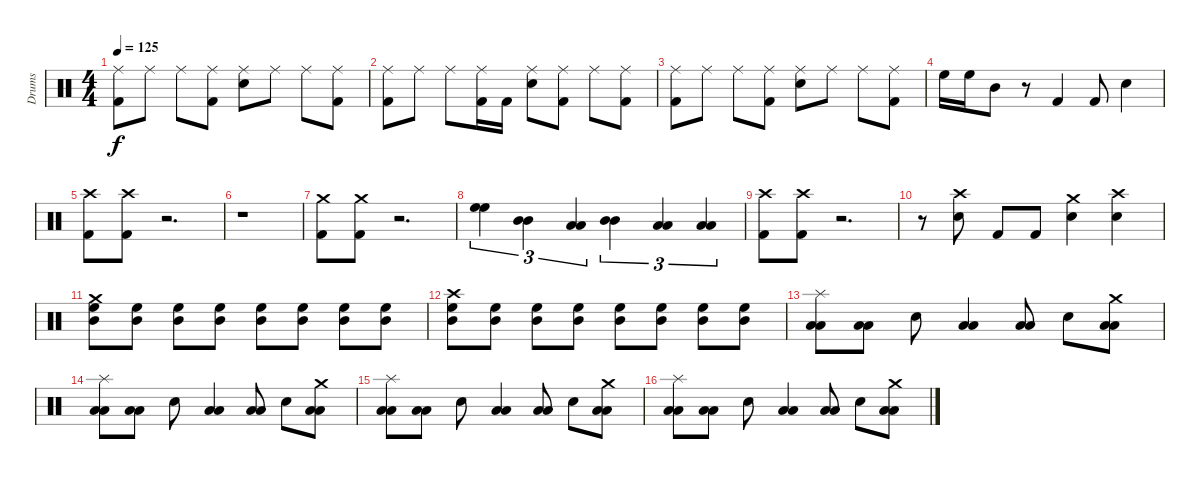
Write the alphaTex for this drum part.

\track ("Drums" "Drums") {instrument percussion}
\staff {score}
\articulation defaults
\ts (4 4)
\tempo 125
\clef neutral
\ks c
("Ride (middle)" "Kick (hit) 2").8{dy f} "Ride (middle)".8 "Ride (middle)".8 ("Ride (middle)" "Kick (hit) 2").8 ("Ride (middle)" "Snare (hit) 2").8 "Ride (middle)".8 "Ride (middle)".8 ("Ride (middle)" "Kick (hit) 2").8 |
("Ride (middle)" "Kick (hit) 2").8 "Ride (middle)".8 "Ride (middle)".8 ("Ride (middle)" "Kick (hit) 2").16 "Kick (hit) 2".16 ("Ride (middle)" "Snare (hit) 2").8 ("Ride (middle)" "Kick (hit) 2").8 "Ride (middle)".8 ("Ride (middle)" "Kick (hit) 2").8 |
("Ride (middle)" "Kick (hit) 2").8 "Ride (middle)".8 "Ride (middle)".8 ("Ride (middle)" "Kick (hit) 2").8 ("Ride (middle)" "Snare (hit) 2").8 "Ride (middle)".8 "Ride (middle)".8 ("Ride (middle)" "Kick (hit) 2").8 |
"High Floor Tom (hit)".16 "High Floor Tom (hit)".16 "Mid Tom (hit)".8 r.8 "Kick (hit) 2".4 "Kick (hit) 2".8 "Snare (hit) 2".4 |
("Crash high (hit)" "Kick (hit) 2").8 ("Crash high (hit)" "Kick (hit) 2").8 r.2{d} |
r.1 |
("Crash medium (hit)" "Kick (hit) 2").8 ("Crash medium (hit)" "Kick (hit) 2").8 r.2{d} |
("High Floor Tom (hit)" "High Floor Tom (hit)").4{tu (3 2)} ("Mid Tom (hit)" "Mid Tom (hit)").4{tu (3 2)} ("Low Tom (hit)" "Low Tom (hit)").4{tu (3 2)} ("Mid Tom (hit)" "Mid Tom (hit)").4{tu (3 2)} ("Low Tom (hit)" "Low Tom (hit)").4{tu (3 2)} ("Low Floor Tom (hit)" "Low Floor Tom (hit)").4{tu (3 2)} |
("Crash high (hit)" "Kick (hit) 2").8 ("Crash high (hit)" "Kick (hit) 2").8 r.2{d} |
r.8 ("Crash high (hit)" "Snare (hit) 2").8 "Kick (hit) 2".8 "Kick (hit) 2".8 ("Crash medium (hit)" "Snare (hit) 2").4 ("Crash high (hit)" "Snare (hit) 2").4 |
("Crash medium (hit)" "High Floor Tom (hit)" "Mid Tom (hit)").8 ("High Floor Tom (hit)" "Mid Tom (hit)").8 ("High Floor Tom (hit)" "Mid Tom (hit)").8 ("High Floor Tom (hit)" "Mid Tom (hit)").8 ("High Floor Tom (hit)" "Mid Tom (hit)").8 ("High Floor Tom (hit)" "Mid Tom (hit)").8 ("High Floor Tom (hit)" "Mid Tom (hit)").8 ("High Floor Tom (hit)" "Mid Tom (hit)").8 |
("Crash high (hit)" "High Floor Tom (hit)" "Mid Tom (hit)").8 ("High Floor Tom (hit)" "Mid Tom (hit)").8 ("High Floor Tom (hit)" "Mid Tom (hit)").8 ("High Floor Tom (hit)" "Mid Tom (hit)").8 ("High Floor Tom (hit)" "Mid Tom (hit)").8 ("High Floor Tom (hit)" "Mid Tom (hit)").8 ("High Floor Tom (hit)" "Mid Tom (hit)").8 ("High Floor Tom (hit)" "Mid Tom (hit)").8 |
("Splash (hit)" "Low Floor Tom (hit)" "Low Floor Tom (hit)").8 ("Low Floor Tom (hit)" "Low Floor Tom (hit)").8 "Snare (hit) 2".8 ("Low Floor Tom (hit)" "Low Floor Tom (hit)").4 ("Low Floor Tom (hit)" "Low Floor Tom (hit)").8 "Snare (hit) 2".8 ("Crash medium (hit)" "Low Floor Tom (hit)" "Low Floor Tom (hit)").8 |
("Splash (hit)" "Low Floor Tom (hit)" "Low Floor Tom (hit)").8 ("Low Floor Tom (hit)" "Low Floor Tom (hit)").8 "Snare (hit) 2".8 ("Low Floor Tom (hit)" "Low Floor Tom (hit)").4 ("Low Floor Tom (hit)" "Low Floor Tom (hit)").8 "Snare (hit) 2".8 ("Crash medium (hit)" "Low Floor Tom (hit)" "Low Floor Tom (hit)").8 |
("Splash (hit)" "Low Floor Tom (hit)" "Low Floor Tom (hit)").8 ("Low Floor Tom (hit)" "Low Floor Tom (hit)").8 "Snare (hit) 2".8 ("Low Floor Tom (hit)" "Low Floor Tom (hit)").4 ("Low Floor Tom (hit)" "Low Floor Tom (hit)").8 "Snare (hit) 2".8 ("Crash medium (hit)" "Low Floor Tom (hit)" "Low Floor Tom (hit)").8 |
("Splash (hit)" "Low Floor Tom (hit)" "Low Floor Tom (hit)").8 ("Low Floor Tom (hit)" "Low Floor Tom (hit)").8 "Snare (hit) 2".8 ("Low Floor Tom (hit)" "Low Floor Tom (hit)").4 ("Low Floor Tom (hit)" "Low Floor Tom (hit)").8 "Snare (hit) 2".8 ("Crash medium (hit)" "Low Floor Tom (hit)" "Low Floor Tom (hit)").8
